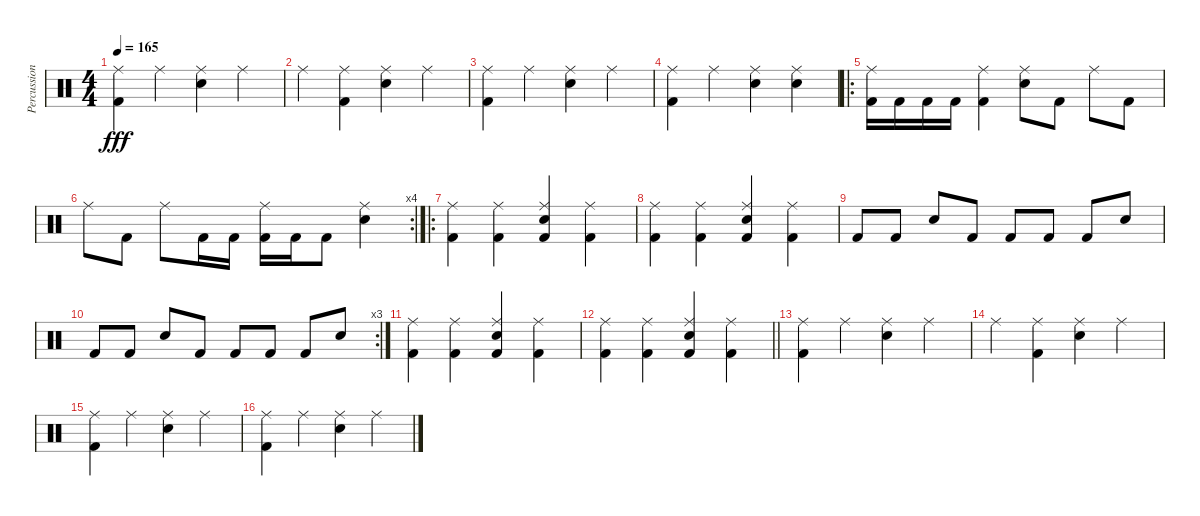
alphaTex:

\track ("Percussion" "Percussion") {instrument percussion}
\staff {score}
\articulation defaults
\ts (4 4)
\tempo 165
\clef neutral
\ks c
("Kick (hit) 2" "Ride (middle)").4{dy fff} "Ride (middle)".4 ("Snare (hit) 2" "Ride (middle)").4 "Ride (middle)".4 |
"Ride (middle)".4 ("Kick (hit) 2" "Ride (middle)").4 ("Snare (hit) 2" "Ride (middle)").4 "Ride (middle)".4 |
("Kick (hit) 2" "Ride (middle)").4 "Ride (middle)".4 ("Snare (hit) 2" "Ride (middle)").4 "Ride (middle)".4 |
("Kick (hit) 2" "Ride (middle)").4 "Ride (middle)".4 ("Snare (hit) 2" "Ride (middle)").4 ("Snare (hit) 2" "Ride (middle)").4 |
\ro
("Ride (middle)" "Kick (hit) 2").16 "Kick (hit) 2".16 "Kick (hit) 2".16 "Kick (hit) 2".16 ("Ride (middle)" "Kick (hit) 2").4 ("Ride (middle)" "Snare (hit) 2").8 "Kick (hit) 2".8 "Ride (middle)".8 "Kick (hit) 2".8 |
\rc 4 "Ride (middle)".8 "Kick (hit) 2".8 "Ride (middle)".8 "Kick (hit) 2".16 "Kick (hit) 2".16
("Ride (middle)" "Kick (hit) 2").16 "Kick (hit) 2".16 "Kick (hit) 2".8 ("Ride (middle)" "Snare (hit) 2").4 |
\ro
("Kick (hit) 2" "Ride (middle)").4 ("Kick (hit) 2" "Ride (middle)").4 ("Kick (hit) 2" "Ride (middle)" "Snare (hit) 2").4 ("Kick (hit) 2" "Ride (middle)").4 |
("Kick (hit) 2" "Ride (middle)").4 ("Kick (hit) 2" "Ride (middle)").4 ("Kick (hit) 2" "Ride (middle)" "Snare (hit) 2").4 ("Kick (hit) 2" "Ride (middle)").4 |
"Kick (hit) 2".8 "Kick (hit) 2".8 "Snare (hit) 2".8 "Kick (hit) 2".8 "Kick (hit) 2".8 "Kick (hit) 2".8 "Kick (hit) 2".8 "Snare (hit) 2".8 |
\rc 3 "Kick (hit) 2".8 "Kick (hit) 2".8 "Snare (hit) 2".8 "Kick (hit) 2".8 "Kick (hit) 2".8 "Kick (hit) 2".8 "Kick (hit) 2".8 "Snare (hit) 2".8
|
("Kick (hit) 2" "Ride (middle)").4 ("Kick (hit) 2" "Ride (middle)").4 ("Kick (hit) 2" "Ride (middle)" "Snare (hit) 2").4 ("Kick (hit) 2" "Ride (middle)").4 |
\barLineRight lightlight
("Kick (hit) 2" "Ride (middle)").4 ("Kick (hit) 2" "Ride (middle)").4 ("Kick (hit) 2" "Ride (middle)" "Snare (hit) 2").4 ("Kick (hit) 2" "Ride (middle)").4 |
("Kick (hit) 2" "Ride (middle)").4 "Ride (middle)".4 ("Snare (hit) 2" "Ride (middle)").4 "Ride (middle)".4 |
"Ride (middle)".4 ("Kick (hit) 2" "Ride (middle)").4 ("Snare (hit) 2" "Ride (middle)").4 "Ride (middle)".4 |
("Kick (hit) 2" "Ride (middle)").4 "Ride (middle)".4 ("Snare (hit) 2" "Ride (middle)").4 "Ride (middle)".4 |
("Kick (hit) 2" "Ride (middle)").4 "Ride (middle)".4 ("Snare (hit) 2" "Ride (middle)").4 "Ride (middle)".4
